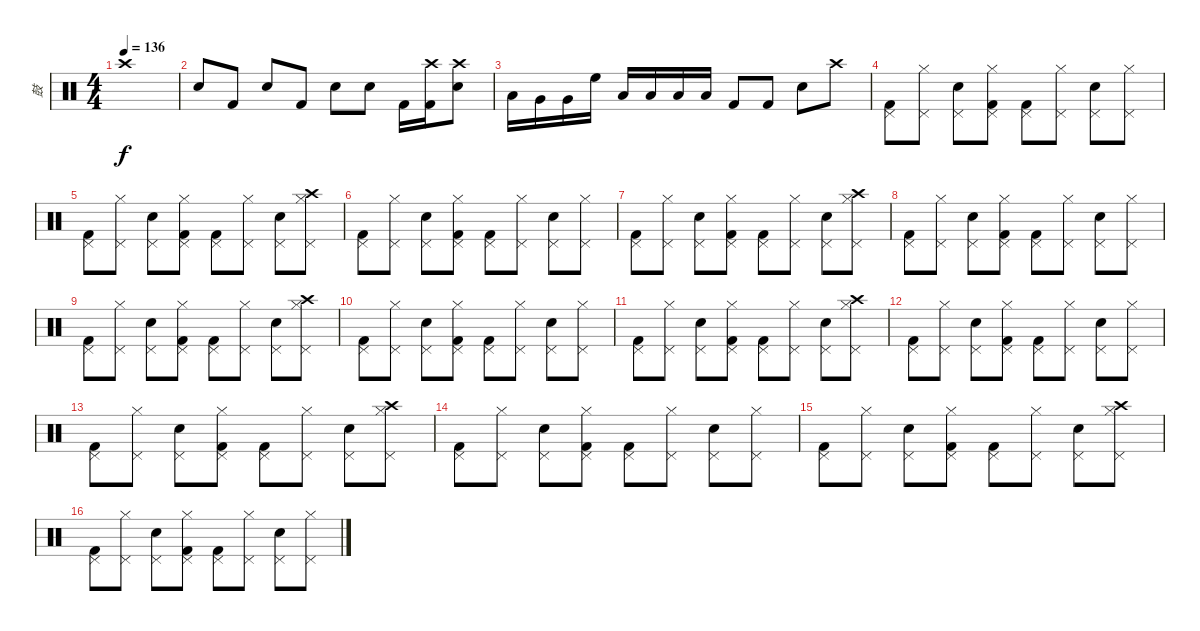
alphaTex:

\track ("鼓" "鼓") {instrument percussion}
\staff {score}
\articulation defaults
\ts (4 4)
\tempo 136
\clef neutral
\ks c "Crash high (hit)".1{dy f}
|
"Electric Snare (hit)".8 "Kick (hit) 2".8 "Electric Snare (hit)".8 "Kick (hit) 2".8 "Electric Snare (hit)".8 "Electric Snare (hit)".8 "Kick (hit) 2".16 ("Crash high (hit)" "Kick (hit) 2").16 ("Crash high (hit)" "Electric Snare (hit)").8 |
"Low Floor Tom (hit)".16 "Very Low Tom (hit)".16 "Very Low Tom (hit)".16 "High Floor Tom (hit)".16 "Low Tom (hit)".16 "Low Tom (hit)".16 "Low Tom (hit)".16 "Low Tom (hit)".16 "Kick (hit) 2".8 "Kick (hit) 2".8 "Electric Snare (hit)".8 "Crash high (hit)".8 |
("Pedal Hi-Hat (hit)" "Kick (hit) 2").8 ("Pedal Hi-Hat (hit)" "Hi-Hat (closed)").8 ("Pedal Hi-Hat (hit)" "Electric Snare (hit)").8 ("Pedal Hi-Hat (hit)" "Hi-Hat (closed)" "Kick (hit) 2").8 ("Pedal Hi-Hat (hit)" "Kick (hit) 2").8 ("Pedal Hi-Hat (hit)" "Hi-Hat (closed)").8 ("Pedal Hi-Hat (hit)" "Electric Snare (hit)").8 ("Pedal Hi-Hat (hit)" "Hi-Hat (closed)").8 |
("Pedal Hi-Hat (hit)" "Kick (hit) 2").8 ("Pedal Hi-Hat (hit)" "Hi-Hat (closed)").8 ("Pedal Hi-Hat (hit)" "Electric Snare (hit)").8 ("Pedal Hi-Hat (hit)" "Hi-Hat (closed)" "Kick (hit) 2").8 ("Pedal Hi-Hat (hit)" "Kick (hit) 2").8 ("Pedal Hi-Hat (hit)" "Hi-Hat (closed)").8 ("Pedal Hi-Hat (hit)" "Electric Snare (hit)").8 ("Pedal Hi-Hat (hit)" "Hi-Hat (closed)" "Crash high (hit)").8 |
("Pedal Hi-Hat (hit)" "Kick (hit) 2").8 ("Pedal Hi-Hat (hit)" "Hi-Hat (closed)").8 ("Pedal Hi-Hat (hit)" "Electric Snare (hit)").8 ("Pedal Hi-Hat (hit)" "Hi-Hat (closed)" "Kick (hit) 2").8 ("Pedal Hi-Hat (hit)" "Kick (hit) 2").8 ("Pedal Hi-Hat (hit)" "Hi-Hat (closed)").8 ("Pedal Hi-Hat (hit)" "Electric Snare (hit)").8 ("Pedal Hi-Hat (hit)" "Hi-Hat (closed)").8 |
("Pedal Hi-Hat (hit)" "Kick (hit) 2").8 ("Pedal Hi-Hat (hit)" "Hi-Hat (closed)").8 ("Pedal Hi-Hat (hit)" "Electric Snare (hit)").8 ("Pedal Hi-Hat (hit)" "Hi-Hat (closed)" "Kick (hit) 2").8 ("Pedal Hi-Hat (hit)" "Kick (hit) 2").8 ("Pedal Hi-Hat (hit)" "Hi-Hat (closed)").8 ("Pedal Hi-Hat (hit)" "Electric Snare (hit)").8 ("Pedal Hi-Hat (hit)" "Hi-Hat (closed)" "Crash high (hit)").8 |
("Pedal Hi-Hat (hit)" "Kick (hit) 2").8 ("Pedal Hi-Hat (hit)" "Hi-Hat (closed)").8 ("Pedal Hi-Hat (hit)" "Electric Snare (hit)").8 ("Pedal Hi-Hat (hit)" "Hi-Hat (closed)" "Kick (hit) 2").8 ("Pedal Hi-Hat (hit)" "Kick (hit) 2").8 ("Pedal Hi-Hat (hit)" "Hi-Hat (closed)").8 ("Pedal Hi-Hat (hit)" "Electric Snare (hit)").8 ("Pedal Hi-Hat (hit)" "Hi-Hat (closed)").8 |
("Pedal Hi-Hat (hit)" "Kick (hit) 2").8 ("Pedal Hi-Hat (hit)" "Hi-Hat (closed)").8 ("Pedal Hi-Hat (hit)" "Electric Snare (hit)").8 ("Pedal Hi-Hat (hit)" "Hi-Hat (closed)" "Kick (hit) 2").8 ("Pedal Hi-Hat (hit)" "Kick (hit) 2").8 ("Pedal Hi-Hat (hit)" "Hi-Hat (closed)").8 ("Pedal Hi-Hat (hit)" "Electric Snare (hit)").8 ("Pedal Hi-Hat (hit)" "Hi-Hat (closed)" "Crash high (hit)").8 |
("Pedal Hi-Hat (hit)" "Kick (hit) 2").8 ("Pedal Hi-Hat (hit)" "Hi-Hat (closed)").8 ("Pedal Hi-Hat (hit)" "Electric Snare (hit)").8 ("Pedal Hi-Hat (hit)" "Hi-Hat (closed)" "Kick (hit) 2").8 ("Pedal Hi-Hat (hit)" "Kick (hit) 2").8 ("Pedal Hi-Hat (hit)" "Hi-Hat (closed)").8 ("Pedal Hi-Hat (hit)" "Electric Snare (hit)").8 ("Pedal Hi-Hat (hit)" "Hi-Hat (closed)").8 |
("Pedal Hi-Hat (hit)" "Kick (hit) 2").8 ("Pedal Hi-Hat (hit)" "Hi-Hat (closed)").8 ("Pedal Hi-Hat (hit)" "Electric Snare (hit)").8 ("Pedal Hi-Hat (hit)" "Hi-Hat (closed)" "Kick (hit) 2").8 ("Pedal Hi-Hat (hit)" "Kick (hit) 2").8 ("Pedal Hi-Hat (hit)" "Hi-Hat (closed)").8 ("Pedal Hi-Hat (hit)" "Electric Snare (hit)").8 ("Pedal Hi-Hat (hit)" "Hi-Hat (closed)" "Crash high (hit)").8 |
("Pedal Hi-Hat (hit)" "Kick (hit) 2").8 ("Pedal Hi-Hat (hit)" "Hi-Hat (closed)").8 ("Pedal Hi-Hat (hit)" "Electric Snare (hit)").8 ("Pedal Hi-Hat (hit)" "Hi-Hat (closed)" "Kick (hit) 2").8 ("Pedal Hi-Hat (hit)" "Kick (hit) 2").8 ("Pedal Hi-Hat (hit)" "Hi-Hat (closed)").8 ("Pedal Hi-Hat (hit)" "Electric Snare (hit)").8 ("Pedal Hi-Hat (hit)" "Hi-Hat (closed)").8 |
("Pedal Hi-Hat (hit)" "Kick (hit) 2").8 ("Pedal Hi-Hat (hit)" "Hi-Hat (closed)").8 ("Pedal Hi-Hat (hit)" "Electric Snare (hit)").8 ("Pedal Hi-Hat (hit)" "Hi-Hat (closed)" "Kick (hit) 2").8 ("Pedal Hi-Hat (hit)" "Kick (hit) 2").8 ("Pedal Hi-Hat (hit)" "Hi-Hat (closed)").8 ("Pedal Hi-Hat (hit)" "Electric Snare (hit)").8 ("Pedal Hi-Hat (hit)" "Hi-Hat (closed)" "Crash high (hit)").8 |
("Pedal Hi-Hat (hit)" "Kick (hit) 2").8 ("Pedal Hi-Hat (hit)" "Hi-Hat (closed)").8 ("Pedal Hi-Hat (hit)" "Electric Snare (hit)").8 ("Pedal Hi-Hat (hit)" "Hi-Hat (closed)" "Kick (hit) 2").8 ("Pedal Hi-Hat (hit)" "Kick (hit) 2").8 ("Pedal Hi-Hat (hit)" "Hi-Hat (closed)").8 ("Pedal Hi-Hat (hit)" "Electric Snare (hit)").8 ("Pedal Hi-Hat (hit)" "Hi-Hat (closed)").8 |
("Pedal Hi-Hat (hit)" "Kick (hit) 2").8 ("Pedal Hi-Hat (hit)" "Hi-Hat (closed)").8 ("Pedal Hi-Hat (hit)" "Electric Snare (hit)").8 ("Pedal Hi-Hat (hit)" "Hi-Hat (closed)" "Kick (hit) 2").8 ("Pedal Hi-Hat (hit)" "Kick (hit) 2").8 ("Pedal Hi-Hat (hit)" "Hi-Hat (closed)").8 ("Pedal Hi-Hat (hit)" "Electric Snare (hit)").8 ("Pedal Hi-Hat (hit)" "Hi-Hat (closed)" "Crash high (hit)").8 |
("Pedal Hi-Hat (hit)" "Kick (hit) 2").8 ("Pedal Hi-Hat (hit)" "Hi-Hat (closed)").8 ("Pedal Hi-Hat (hit)" "Electric Snare (hit)").8 ("Pedal Hi-Hat (hit)" "Hi-Hat (closed)" "Kick (hit) 2").8 ("Pedal Hi-Hat (hit)" "Kick (hit) 2").8 ("Pedal Hi-Hat (hit)" "Hi-Hat (closed)").8 ("Pedal Hi-Hat (hit)" "Electric Snare (hit)").8 ("Pedal Hi-Hat (hit)" "Hi-Hat (closed)").8
